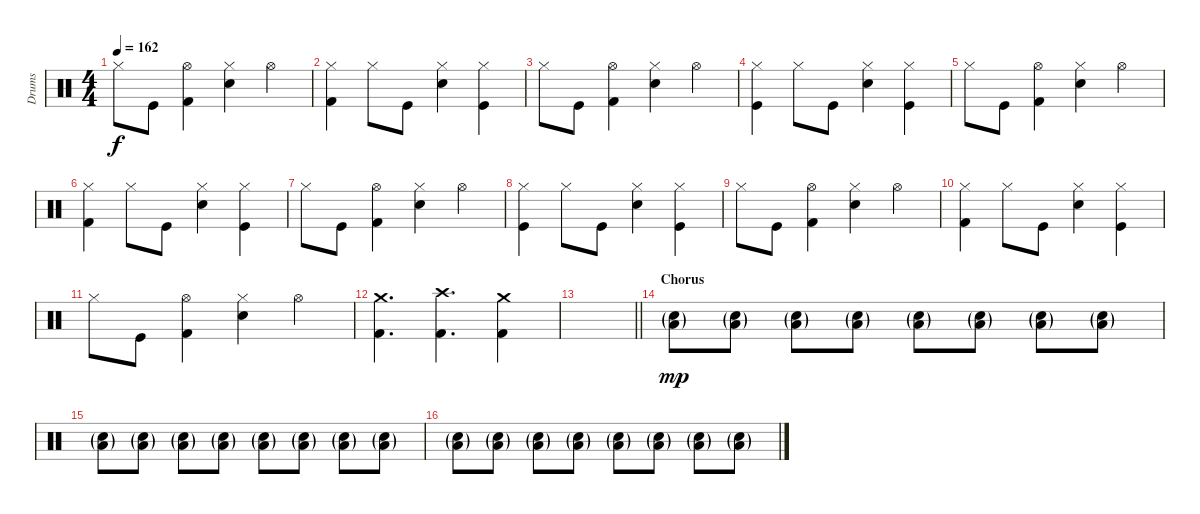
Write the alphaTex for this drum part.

\track ("Drums" "Drums") {instrument percussion}
\staff {score}
\articulation defaults
\ts (4 4)
\tempo 162
\clef neutral
\ks c "Hi-Hat (closed)".8{dy f} "Kick (hit)".8
("Hi-Hat (open)" "Kick (hit) 2").4 ("Hi-Hat (closed)" "Electric Snare (hit)").4 "Hi-Hat (open)".4 |
("Hi-Hat (closed)" "Kick (hit) 2").4 "Hi-Hat (closed)".8 "Kick (hit)".8 ("Hi-Hat (closed)" "Electric Snare (hit)").4 ("Hi-Hat (closed)" "Kick (hit)").4 |
"Hi-Hat (closed)".8 "Kick (hit)".8 ("Hi-Hat (open)" "Kick (hit) 2").4 ("Hi-Hat (closed)" "Electric Snare (hit)").4 "Hi-Hat (open)".4 |
("Hi-Hat (closed)" "Kick (hit)").4 "Hi-Hat (closed)".8 "Kick (hit)".8 ("Hi-Hat (closed)" "Electric Snare (hit)").4 ("Hi-Hat (closed)" "Kick (hit)").4 |
"Hi-Hat (closed)".8 "Kick (hit)".8 ("Hi-Hat (open)" "Kick (hit) 2").4 ("Hi-Hat (closed)" "Electric Snare (hit)").4 "Hi-Hat (open)".4 |
("Hi-Hat (closed)" "Kick (hit) 2").4 "Hi-Hat (closed)".8 "Kick (hit)".8 ("Hi-Hat (closed)" "Electric Snare (hit)").4 ("Hi-Hat (closed)" "Kick (hit)").4 |
"Hi-Hat (closed)".8 "Kick (hit)".8 ("Hi-Hat (open)" "Kick (hit) 2").4 ("Hi-Hat (closed)" "Electric Snare (hit)").4 "Hi-Hat (open)".4 |
("Hi-Hat (closed)" "Kick (hit)").4 "Hi-Hat (closed)".8 "Kick (hit)".8 ("Hi-Hat (closed)" "Electric Snare (hit)").4 ("Hi-Hat (closed)" "Kick (hit)").4 |
"Hi-Hat (closed)".8 "Kick (hit)".8 ("Hi-Hat (open)" "Kick (hit) 2").4 ("Hi-Hat (closed)" "Electric Snare (hit)").4 "Hi-Hat (open)".4 |
("Hi-Hat (closed)" "Kick (hit) 2").4 "Hi-Hat (closed)".8 "Kick (hit)".8 ("Hi-Hat (closed)" "Electric Snare (hit)").4 ("Hi-Hat (closed)" "Kick (hit)").4 |
"Hi-Hat (closed)".8 "Kick (hit)".8 ("Hi-Hat (open)" "Kick (hit) 2").4 ("Hi-Hat (closed)" "Electric Snare (hit)").4 "Hi-Hat (open)".4 |
("Crash medium (hit)" "Kick (hit) 2").4{d volume 12 balance 8} ("Crash high (hit)" "Kick (hit) 2").4{d} ("Crash medium (hit)" "Kick (hit) 2").4 |
\barLineRight lightlight
|
\section ("" "Chorus")
("Low Floor Tom (hit)"{g} "Electric Snare (hit)"{g}).8{dy mp volume 10} ("Low Floor Tom (hit)"{g} "Electric Snare (hit)"{g}).8 ("Low Floor Tom (hit)"{g} "Electric Snare (hit)"{g}).8 ("Low Floor Tom (hit)"{g} "Electric Snare (hit)"{g}).8 ("Low Floor Tom (hit)"{g} "Electric Snare (hit)"{g}).8 ("Low Floor Tom (hit)"{g} "Electric Snare (hit)"{g}).8 ("Low Floor Tom (hit)"{g} "Electric Snare (hit)"{g}).8 ("Low Floor Tom (hit)"{g} "Electric Snare (hit)"{g}).8 |
("Low Floor Tom (hit)"{g} "Electric Snare (hit)"{g}).8 ("Low Floor Tom (hit)"{g} "Electric Snare (hit)"{g}).8 ("Low Floor Tom (hit)"{g} "Electric Snare (hit)"{g}).8 ("Low Floor Tom (hit)"{g} "Electric Snare (hit)"{g}).8 ("Low Floor Tom (hit)"{g} "Electric Snare (hit)"{g}).8 ("Low Floor Tom (hit)"{g} "Electric Snare (hit)"{g}).8 ("Low Floor Tom (hit)"{g} "Electric Snare (hit)"{g}).8 ("Low Floor Tom (hit)"{g} "Electric Snare (hit)"{g}).8 |
("Low Floor Tom (hit)"{g} "Electric Snare (hit)"{g}).8 ("Low Floor Tom (hit)"{g} "Electric Snare (hit)"{g}).8 ("Low Floor Tom (hit)"{g} "Electric Snare (hit)"{g}).8 ("Low Floor Tom (hit)"{g} "Electric Snare (hit)"{g}).8 ("Low Floor Tom (hit)"{g} "Electric Snare (hit)"{g}).8 ("Low Floor Tom (hit)"{g} "Electric Snare (hit)"{g}).8 ("Low Floor Tom (hit)"{g} "Electric Snare (hit)"{g}).8 ("Low Floor Tom (hit)"{g} "Electric Snare (hit)"{g}).8
